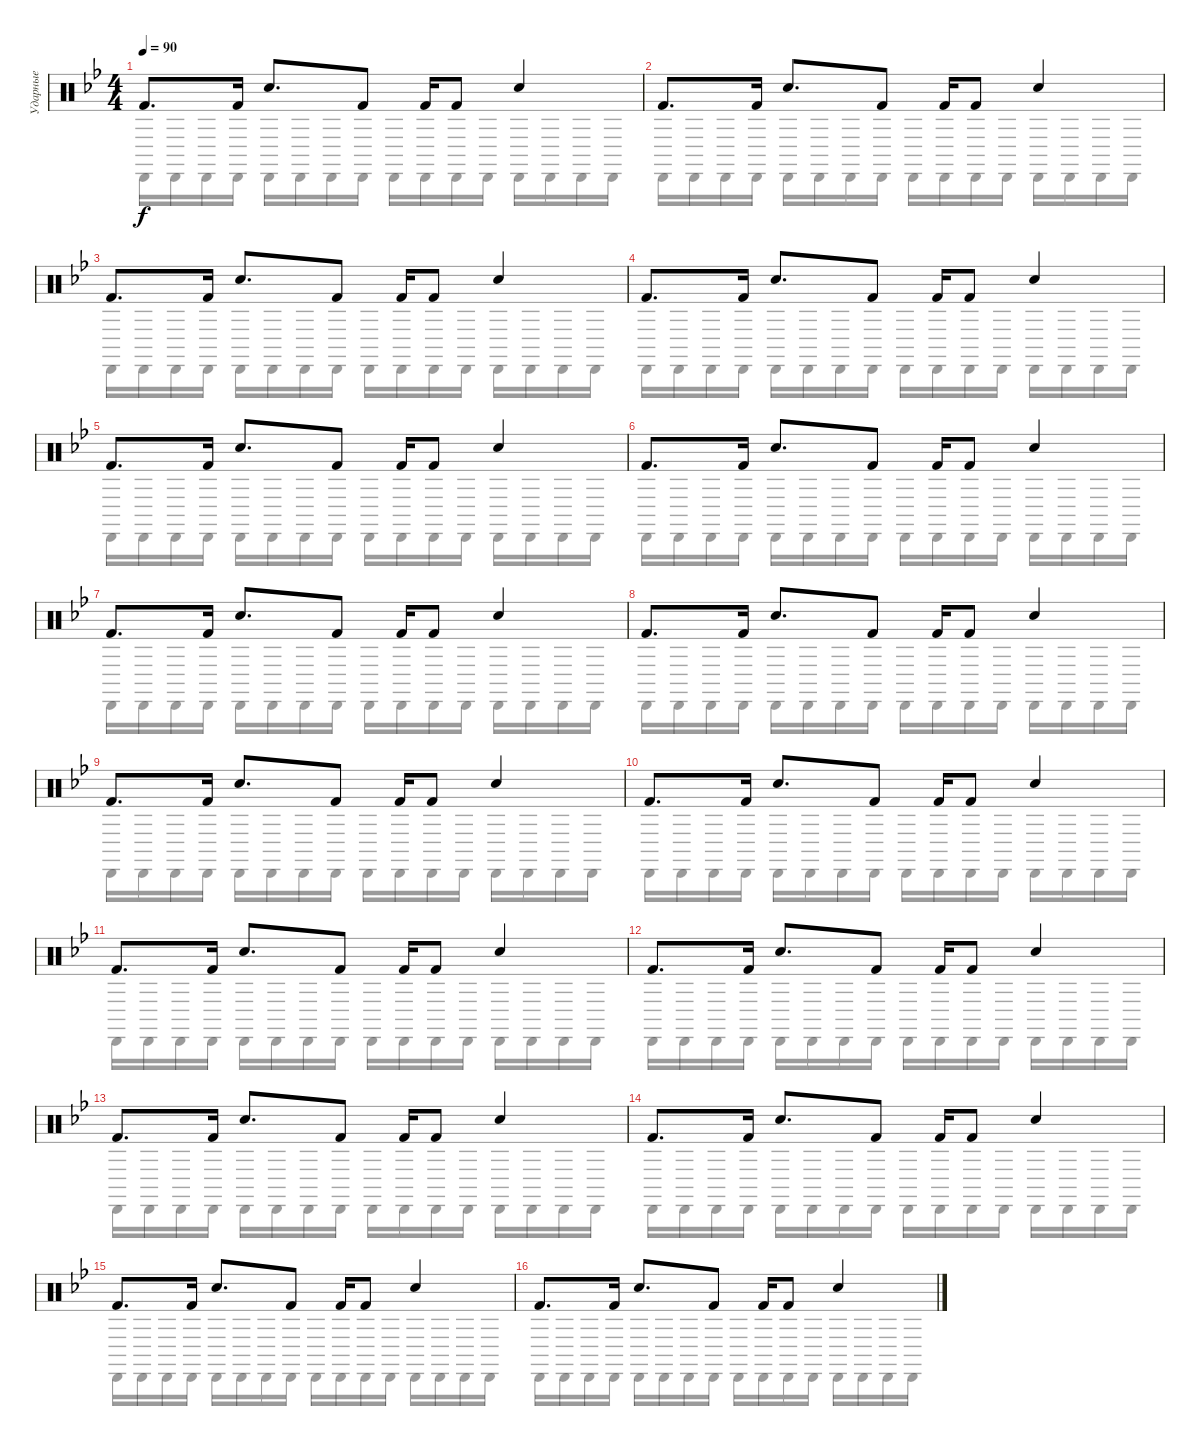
\track ("Ударные" "Ударные") {instrument percussion}
\staff {score}
\articulation defaults
\voice
\ts (4 4)
\tempo 90
\clef neutral
\ks bb "Kick (hit) 2".8{d dy f} "Kick (hit) 2".16 "Hand Clap (hit)".8{d} "Kick (hit) 2".8 "Kick (hit) 2".16 "Kick (hit) 2".8 "Hand Clap (hit)".4
|
"Kick (hit) 2".8{d} "Kick (hit) 2".16 "Hand Clap (hit)".8{d} "Kick (hit) 2".8 "Kick (hit) 2".16 "Kick (hit) 2".8 "Hand Clap (hit)".4 |
"Kick (hit) 2".8{d} "Kick (hit) 2".16 "Hand Clap (hit)".8{d} "Kick (hit) 2".8 "Kick (hit) 2".16 "Kick (hit) 2".8 "Hand Clap (hit)".4 |
"Kick (hit) 2".8{d} "Kick (hit) 2".16 "Hand Clap (hit)".8{d} "Kick (hit) 2".8 "Kick (hit) 2".16 "Kick (hit) 2".8 "Hand Clap (hit)".4 |
"Kick (hit) 2".8{d} "Kick (hit) 2".16 "Hand Clap (hit)".8{d} "Kick (hit) 2".8 "Kick (hit) 2".16 "Kick (hit) 2".8 "Hand Clap (hit)".4 |
"Kick (hit) 2".8{d} "Kick (hit) 2".16 "Hand Clap (hit)".8{d} "Kick (hit) 2".8 "Kick (hit) 2".16 "Kick (hit) 2".8 "Hand Clap (hit)".4 |
"Kick (hit) 2".8{d} "Kick (hit) 2".16 "Hand Clap (hit)".8{d} "Kick (hit) 2".8 "Kick (hit) 2".16 "Kick (hit) 2".8 "Hand Clap (hit)".4 |
"Kick (hit) 2".8{d} "Kick (hit) 2".16 "Hand Clap (hit)".8{d} "Kick (hit) 2".8 "Kick (hit) 2".16 "Kick (hit) 2".8 "Hand Clap (hit)".4 |
"Kick (hit) 2".8{d} "Kick (hit) 2".16 "Hand Clap (hit)".8{d} "Kick (hit) 2".8 "Kick (hit) 2".16 "Kick (hit) 2".8 "Hand Clap (hit)".4 |
"Kick (hit) 2".8{d} "Kick (hit) 2".16 "Hand Clap (hit)".8{d} "Kick (hit) 2".8 "Kick (hit) 2".16 "Kick (hit) 2".8 "Hand Clap (hit)".4 |
"Kick (hit) 2".8{d} "Kick (hit) 2".16 "Hand Clap (hit)".8{d} "Kick (hit) 2".8 "Kick (hit) 2".16 "Kick (hit) 2".8 "Hand Clap (hit)".4 |
"Kick (hit) 2".8{d} "Kick (hit) 2".16 "Hand Clap (hit)".8{d} "Kick (hit) 2".8 "Kick (hit) 2".16 "Kick (hit) 2".8 "Hand Clap (hit)".4 |
"Kick (hit) 2".8{d} "Kick (hit) 2".16 "Hand Clap (hit)".8{d} "Kick (hit) 2".8 "Kick (hit) 2".16 "Kick (hit) 2".8 "Hand Clap (hit)".4 |
"Kick (hit) 2".8{d} "Kick (hit) 2".16 "Hand Clap (hit)".8{d} "Kick (hit) 2".8 "Kick (hit) 2".16 "Kick (hit) 2".8 "Hand Clap (hit)".4 |
"Kick (hit) 2".8{d} "Kick (hit) 2".16 "Hand Clap (hit)".8{d} "Kick (hit) 2".8 "Kick (hit) 2".16 "Kick (hit) 2".8 "Hand Clap (hit)".4 |
"Kick (hit) 2".8{d} "Kick (hit) 2".16 "Hand Clap (hit)".8{d} "Kick (hit) 2".8 "Kick (hit) 2".16 "Kick (hit) 2".8 "Hand Clap (hit)".4
\voice
\clef neutral
\ottava regular
\simile none
\ks bb "Cabasa (hit)".16{dy f} "Cabasa (hit)".16 "Cabasa (hit)".16 "Cabasa (hit)".16 "Cabasa (hit)".16 "Cabasa (hit)".16 "Cabasa (hit)".16 "Cabasa (hit)".16 "Cabasa (hit)".16 "Cabasa (hit)".16 "Cabasa (hit)".16 "Cabasa (hit)".16 "Cabasa (hit)".16 "Cabasa (hit)".16 "Cabasa (hit)".16 "Cabasa (hit)".16
|
"Cabasa (hit)".16 "Cabasa (hit)".16 "Cabasa (hit)".16 "Cabasa (hit)".16 "Cabasa (hit)".16 "Cabasa (hit)".16 "Cabasa (hit)".16 "Cabasa (hit)".16 "Cabasa (hit)".16 "Cabasa (hit)".16 "Cabasa (hit)".16 "Cabasa (hit)".16 "Cabasa (hit)".16 "Cabasa (hit)".16 "Cabasa (hit)".16 "Cabasa (hit)".16 |
"Cabasa (hit)".16 "Cabasa (hit)".16 "Cabasa (hit)".16 "Cabasa (hit)".16 "Cabasa (hit)".16 "Cabasa (hit)".16 "Cabasa (hit)".16 "Cabasa (hit)".16 "Cabasa (hit)".16 "Cabasa (hit)".16 "Cabasa (hit)".16 "Cabasa (hit)".16 "Cabasa (hit)".16 "Cabasa (hit)".16 "Cabasa (hit)".16 "Cabasa (hit)".16 |
"Cabasa (hit)".16 "Cabasa (hit)".16 "Cabasa (hit)".16 "Cabasa (hit)".16 "Cabasa (hit)".16 "Cabasa (hit)".16 "Cabasa (hit)".16 "Cabasa (hit)".16 "Cabasa (hit)".16 "Cabasa (hit)".16 "Cabasa (hit)".16 "Cabasa (hit)".16 "Cabasa (hit)".16 "Cabasa (hit)".16 "Cabasa (hit)".16 "Cabasa (hit)".16 |
"Cabasa (hit)".16 "Cabasa (hit)".16 "Cabasa (hit)".16 "Cabasa (hit)".16 "Cabasa (hit)".16 "Cabasa (hit)".16 "Cabasa (hit)".16 "Cabasa (hit)".16 "Cabasa (hit)".16 "Cabasa (hit)".16 "Cabasa (hit)".16 "Cabasa (hit)".16 "Cabasa (hit)".16 "Cabasa (hit)".16 "Cabasa (hit)".16 "Cabasa (hit)".16 |
"Cabasa (hit)".16 "Cabasa (hit)".16 "Cabasa (hit)".16 "Cabasa (hit)".16 "Cabasa (hit)".16 "Cabasa (hit)".16 "Cabasa (hit)".16 "Cabasa (hit)".16 "Cabasa (hit)".16 "Cabasa (hit)".16 "Cabasa (hit)".16 "Cabasa (hit)".16 "Cabasa (hit)".16 "Cabasa (hit)".16 "Cabasa (hit)".16 "Cabasa (hit)".16 |
"Cabasa (hit)".16 "Cabasa (hit)".16 "Cabasa (hit)".16 "Cabasa (hit)".16 "Cabasa (hit)".16 "Cabasa (hit)".16 "Cabasa (hit)".16 "Cabasa (hit)".16 "Cabasa (hit)".16 "Cabasa (hit)".16 "Cabasa (hit)".16 "Cabasa (hit)".16 "Cabasa (hit)".16 "Cabasa (hit)".16 "Cabasa (hit)".16 "Cabasa (hit)".16 |
"Cabasa (hit)".16 "Cabasa (hit)".16 "Cabasa (hit)".16 "Cabasa (hit)".16 "Cabasa (hit)".16 "Cabasa (hit)".16 "Cabasa (hit)".16 "Cabasa (hit)".16 "Cabasa (hit)".16 "Cabasa (hit)".16 "Cabasa (hit)".16 "Cabasa (hit)".16 "Cabasa (hit)".16 "Cabasa (hit)".16 "Cabasa (hit)".16 "Cabasa (hit)".16 |
"Cabasa (hit)".16 "Cabasa (hit)".16 "Cabasa (hit)".16 "Cabasa (hit)".16 "Cabasa (hit)".16 "Cabasa (hit)".16 "Cabasa (hit)".16 "Cabasa (hit)".16 "Cabasa (hit)".16 "Cabasa (hit)".16 "Cabasa (hit)".16 "Cabasa (hit)".16 "Cabasa (hit)".16 "Cabasa (hit)".16 "Cabasa (hit)".16 "Cabasa (hit)".16 |
"Cabasa (hit)".16 "Cabasa (hit)".16 "Cabasa (hit)".16 "Cabasa (hit)".16 "Cabasa (hit)".16 "Cabasa (hit)".16 "Cabasa (hit)".16 "Cabasa (hit)".16 "Cabasa (hit)".16 "Cabasa (hit)".16 "Cabasa (hit)".16 "Cabasa (hit)".16 "Cabasa (hit)".16 "Cabasa (hit)".16 "Cabasa (hit)".16 "Cabasa (hit)".16 |
"Cabasa (hit)".16 "Cabasa (hit)".16 "Cabasa (hit)".16 "Cabasa (hit)".16 "Cabasa (hit)".16 "Cabasa (hit)".16 "Cabasa (hit)".16 "Cabasa (hit)".16 "Cabasa (hit)".16 "Cabasa (hit)".16 "Cabasa (hit)".16 "Cabasa (hit)".16 "Cabasa (hit)".16 "Cabasa (hit)".16 "Cabasa (hit)".16 "Cabasa (hit)".16 |
"Cabasa (hit)".16 "Cabasa (hit)".16 "Cabasa (hit)".16 "Cabasa (hit)".16 "Cabasa (hit)".16 "Cabasa (hit)".16 "Cabasa (hit)".16 "Cabasa (hit)".16 "Cabasa (hit)".16 "Cabasa (hit)".16 "Cabasa (hit)".16 "Cabasa (hit)".16 "Cabasa (hit)".16 "Cabasa (hit)".16 "Cabasa (hit)".16 "Cabasa (hit)".16 |
"Cabasa (hit)".16 "Cabasa (hit)".16 "Cabasa (hit)".16 "Cabasa (hit)".16 "Cabasa (hit)".16 "Cabasa (hit)".16 "Cabasa (hit)".16 "Cabasa (hit)".16 "Cabasa (hit)".16 "Cabasa (hit)".16 "Cabasa (hit)".16 "Cabasa (hit)".16 "Cabasa (hit)".16 "Cabasa (hit)".16 "Cabasa (hit)".16 "Cabasa (hit)".16 |
"Cabasa (hit)".16 "Cabasa (hit)".16 "Cabasa (hit)".16 "Cabasa (hit)".16 "Cabasa (hit)".16 "Cabasa (hit)".16 "Cabasa (hit)".16 "Cabasa (hit)".16 "Cabasa (hit)".16 "Cabasa (hit)".16 "Cabasa (hit)".16 "Cabasa (hit)".16 "Cabasa (hit)".16 "Cabasa (hit)".16 "Cabasa (hit)".16 "Cabasa (hit)".16 |
"Cabasa (hit)".16 "Cabasa (hit)".16 "Cabasa (hit)".16 "Cabasa (hit)".16 "Cabasa (hit)".16 "Cabasa (hit)".16 "Cabasa (hit)".16 "Cabasa (hit)".16 "Cabasa (hit)".16 "Cabasa (hit)".16 "Cabasa (hit)".16 "Cabasa (hit)".16 "Cabasa (hit)".16 "Cabasa (hit)".16 "Cabasa (hit)".16 "Cabasa (hit)".16 |
"Cabasa (hit)".16 "Cabasa (hit)".16 "Cabasa (hit)".16 "Cabasa (hit)".16 "Cabasa (hit)".16 "Cabasa (hit)".16 "Cabasa (hit)".16 "Cabasa (hit)".16 "Cabasa (hit)".16 "Cabasa (hit)".16 "Cabasa (hit)".16 "Cabasa (hit)".16 "Cabasa (hit)".16 "Cabasa (hit)".16 "Cabasa (hit)".16 "Cabasa (hit)".16
